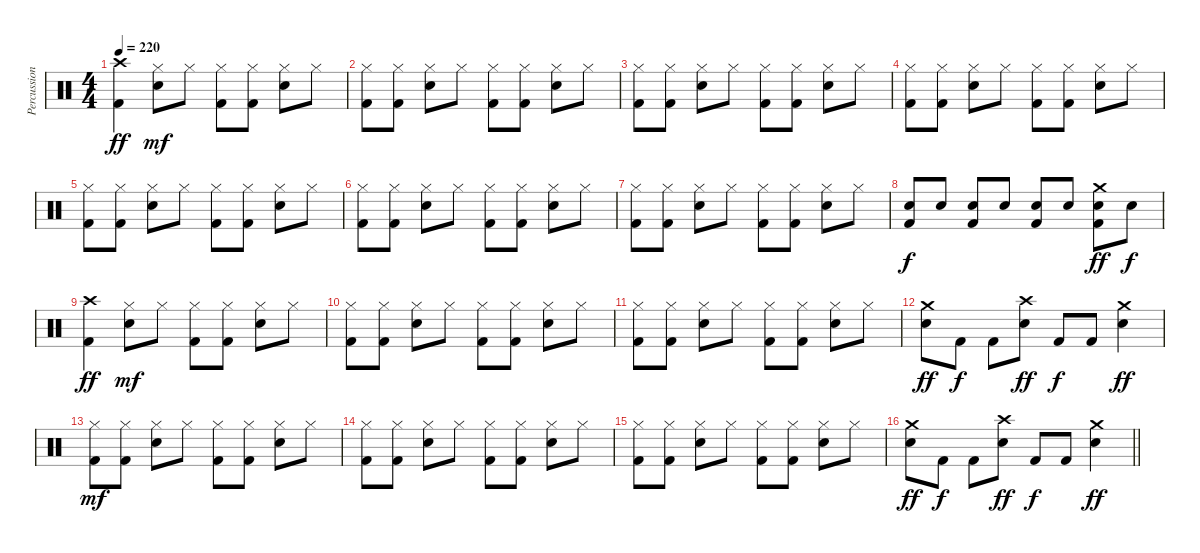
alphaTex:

\track ("Percussion" "Percussion") {instrument percussion}
\staff {score}
\articulation defaults
\ts (4 4)
\tempo 220
\clef neutral
\ks c
("Crash high (hit)" "Kick (hit) 2").4{dy ff} ("Hi-Hat (closed)" "Electric Snare (hit)").8{dy mf} "Hi-Hat (closed)".8 ("Hi-Hat (closed)" "Kick (hit) 2").8 ("Hi-Hat (closed)" "Kick (hit) 2").8 ("Hi-Hat (closed)" "Electric Snare (hit)").8 "Hi-Hat (closed)".8 |
("Hi-Hat (closed)" "Kick (hit) 2").8 ("Hi-Hat (closed)" "Kick (hit) 2").8 ("Hi-Hat (closed)" "Electric Snare (hit)").8 "Hi-Hat (closed)".8 ("Hi-Hat (closed)" "Kick (hit) 2").8 ("Hi-Hat (closed)" "Kick (hit) 2").8 ("Hi-Hat (closed)" "Electric Snare (hit)").8 "Hi-Hat (closed)".8 |
("Hi-Hat (closed)" "Kick (hit) 2").8 ("Hi-Hat (closed)" "Kick (hit) 2").8 ("Hi-Hat (closed)" "Electric Snare (hit)").8 "Hi-Hat (closed)".8 ("Hi-Hat (closed)" "Kick (hit) 2").8 ("Hi-Hat (closed)" "Kick (hit) 2").8 ("Hi-Hat (closed)" "Electric Snare (hit)").8 "Hi-Hat (closed)".8 |
("Hi-Hat (closed)" "Kick (hit) 2").8 ("Hi-Hat (closed)" "Kick (hit) 2").8 ("Hi-Hat (closed)" "Electric Snare (hit)").8 "Hi-Hat (closed)".8 ("Hi-Hat (closed)" "Kick (hit) 2").8 ("Hi-Hat (closed)" "Kick (hit) 2").8 ("Hi-Hat (closed)" "Electric Snare (hit)").8 "Hi-Hat (closed)".8 |
("Hi-Hat (closed)" "Kick (hit) 2").8 ("Hi-Hat (closed)" "Kick (hit) 2").8 ("Hi-Hat (closed)" "Electric Snare (hit)").8 "Hi-Hat (closed)".8 ("Hi-Hat (closed)" "Kick (hit) 2").8 ("Hi-Hat (closed)" "Kick (hit) 2").8 ("Hi-Hat (closed)" "Electric Snare (hit)").8 "Hi-Hat (closed)".8 |
("Hi-Hat (closed)" "Kick (hit) 2").8 ("Hi-Hat (closed)" "Kick (hit) 2").8 ("Hi-Hat (closed)" "Electric Snare (hit)").8 "Hi-Hat (closed)".8 ("Hi-Hat (closed)" "Kick (hit) 2").8 ("Hi-Hat (closed)" "Kick (hit) 2").8 ("Hi-Hat (closed)" "Electric Snare (hit)").8 "Hi-Hat (closed)".8 |
("Hi-Hat (closed)" "Kick (hit) 2").8 ("Hi-Hat (closed)" "Kick (hit) 2").8 ("Hi-Hat (closed)" "Electric Snare (hit)").8 "Hi-Hat (closed)".8 ("Hi-Hat (closed)" "Kick (hit) 2").8 ("Hi-Hat (closed)" "Kick (hit) 2").8 ("Hi-Hat (closed)" "Electric Snare (hit)").8 "Hi-Hat (closed)".8 |
("Electric Snare (hit)" "Kick (hit) 2").8{dy f} "Electric Snare (hit)".8 ("Electric Snare (hit)" "Kick (hit) 2").8 "Electric Snare (hit)".8 ("Electric Snare (hit)" "Kick (hit) 2").8 "Electric Snare (hit)".8 ("Crash medium (hit)" "Electric Snare (hit)" "Kick (hit) 2").8{dy ff} "Electric Snare (hit)".8{dy f} |
("Crash high (hit)" "Kick (hit) 2").4{dy ff} ("Hi-Hat (closed)" "Electric Snare (hit)").8{dy mf} "Hi-Hat (closed)".8 ("Hi-Hat (closed)" "Kick (hit) 2").8 ("Hi-Hat (closed)" "Kick (hit) 2").8 ("Hi-Hat (closed)" "Electric Snare (hit)").8 "Hi-Hat (closed)".8 |
("Hi-Hat (closed)" "Kick (hit) 2").8 ("Hi-Hat (closed)" "Kick (hit) 2").8 ("Hi-Hat (closed)" "Electric Snare (hit)").8 "Hi-Hat (closed)".8 ("Hi-Hat (closed)" "Kick (hit) 2").8 ("Hi-Hat (closed)" "Kick (hit) 2").8 ("Hi-Hat (closed)" "Electric Snare (hit)").8 "Hi-Hat (closed)".8 |
("Hi-Hat (closed)" "Kick (hit) 2").8 ("Hi-Hat (closed)" "Kick (hit) 2").8 ("Hi-Hat (closed)" "Electric Snare (hit)").8 "Hi-Hat (closed)".8 ("Hi-Hat (closed)" "Kick (hit) 2").8 ("Hi-Hat (closed)" "Kick (hit) 2").8 ("Hi-Hat (closed)" "Electric Snare (hit)").8 "Hi-Hat (closed)".8 |
("Crash medium (hit)" "Electric Snare (hit)").8{dy ff} "Kick (hit) 2".8{dy f} "Kick (hit) 2".8 ("Crash high (hit)" "Electric Snare (hit)").8{dy ff} "Kick (hit) 2".8{dy f} "Kick (hit) 2".8 ("Crash medium (hit)" "Electric Snare (hit)").4{dy ff} |
("Hi-Hat (closed)" "Kick (hit) 2").8{dy mf} ("Hi-Hat (closed)" "Kick (hit) 2").8 ("Hi-Hat (closed)" "Electric Snare (hit)").8 "Hi-Hat (closed)".8 ("Hi-Hat (closed)" "Kick (hit) 2").8 ("Hi-Hat (closed)" "Kick (hit) 2").8 ("Hi-Hat (closed)" "Electric Snare (hit)").8 "Hi-Hat (closed)".8 |
("Hi-Hat (closed)" "Kick (hit) 2").8 ("Hi-Hat (closed)" "Kick (hit) 2").8 ("Hi-Hat (closed)" "Electric Snare (hit)").8 "Hi-Hat (closed)".8 ("Hi-Hat (closed)" "Kick (hit) 2").8 ("Hi-Hat (closed)" "Kick (hit) 2").8 ("Hi-Hat (closed)" "Electric Snare (hit)").8 "Hi-Hat (closed)".8 |
("Hi-Hat (closed)" "Kick (hit) 2").8 ("Hi-Hat (closed)" "Kick (hit) 2").8 ("Hi-Hat (closed)" "Electric Snare (hit)").8 "Hi-Hat (closed)".8 ("Hi-Hat (closed)" "Kick (hit) 2").8 ("Hi-Hat (closed)" "Kick (hit) 2").8 ("Hi-Hat (closed)" "Electric Snare (hit)").8 "Hi-Hat (closed)".8 |
\barLineRight lightlight
("Crash medium (hit)" "Electric Snare (hit)").8{dy ff} "Kick (hit) 2".8{dy f} "Kick (hit) 2".8 ("Crash high (hit)" "Electric Snare (hit)").8{dy ff} "Kick (hit) 2".8{dy f} "Kick (hit) 2".8 ("Crash medium (hit)" "Electric Snare (hit)").4{dy ff}
